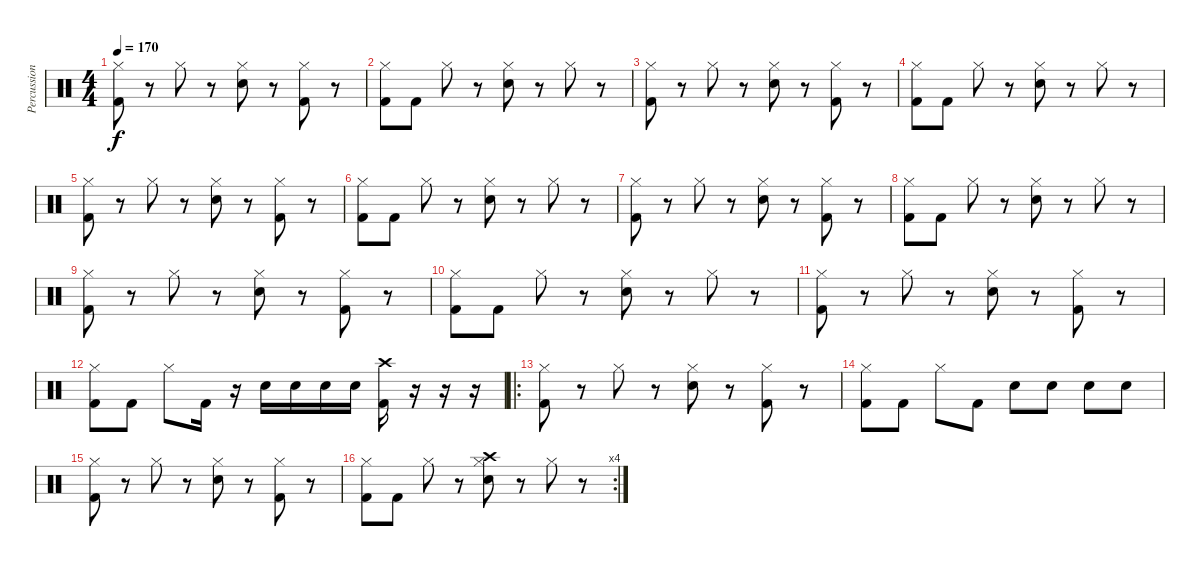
\track ("Percussions" "Percussion") {instrument percussion}
\staff {score}
\articulation defaults
\ts (4 4)
\tempo 170
\clef neutral
\ks c
("Kick (hit) 2" "Hi-Hat (closed)").8{dy f} r.8 "Hi-Hat (closed)".8 r.8 ("Electric Snare (hit)" "Hi-Hat (closed)").8 r.8 ("Kick (hit) 2" "Hi-Hat (closed)").8 r.8 |
("Kick (hit) 2" "Hi-Hat (closed)").8 "Kick (hit) 2".8 "Hi-Hat (closed)".8 r.8 ("Electric Snare (hit)" "Hi-Hat (closed)").8 r.8 "Hi-Hat (closed)".8 r.8 |
("Kick (hit) 2" "Hi-Hat (closed)").8 r.8 "Hi-Hat (closed)".8 r.8 ("Electric Snare (hit)" "Hi-Hat (closed)").8 r.8 ("Kick (hit) 2" "Hi-Hat (closed)").8 r.8 |
("Kick (hit) 2" "Hi-Hat (closed)").8 "Kick (hit) 2".8 "Hi-Hat (closed)".8 r.8 ("Electric Snare (hit)" "Hi-Hat (closed)").8 r.8 "Hi-Hat (closed)".8 r.8 |
("Kick (hit) 2" "Hi-Hat (closed)").8 r.8 "Hi-Hat (closed)".8 r.8 ("Electric Snare (hit)" "Hi-Hat (closed)").8 r.8 ("Kick (hit) 2" "Hi-Hat (closed)").8 r.8 |
("Kick (hit) 2" "Hi-Hat (closed)").8 "Kick (hit) 2".8 "Hi-Hat (closed)".8 r.8 ("Electric Snare (hit)" "Hi-Hat (closed)").8 r.8 "Hi-Hat (closed)".8 r.8 |
("Kick (hit) 2" "Hi-Hat (closed)").8 r.8 "Hi-Hat (closed)".8 r.8 ("Electric Snare (hit)" "Hi-Hat (closed)").8 r.8 ("Kick (hit) 2" "Hi-Hat (closed)").8 r.8 |
("Kick (hit) 2" "Hi-Hat (closed)").8 "Kick (hit) 2".8 "Hi-Hat (closed)".8 r.8 ("Electric Snare (hit)" "Hi-Hat (closed)").8 r.8 "Hi-Hat (closed)".8 r.8 |
("Kick (hit) 2" "Hi-Hat (closed)").8 r.8 "Hi-Hat (closed)".8 r.8 ("Electric Snare (hit)" "Hi-Hat (closed)").8 r.8 ("Kick (hit) 2" "Hi-Hat (closed)").8 r.8 |
("Kick (hit) 2" "Hi-Hat (closed)").8 "Kick (hit) 2".8 "Hi-Hat (closed)".8 r.8 ("Electric Snare (hit)" "Hi-Hat (closed)").8 r.8 "Hi-Hat (closed)".8 r.8 |
("Kick (hit) 2" "Hi-Hat (closed)").8 r.8 "Hi-Hat (closed)".8 r.8 ("Electric Snare (hit)" "Hi-Hat (closed)").8 r.8 ("Kick (hit) 2" "Hi-Hat (closed)").8 r.8 |
("Kick (hit) 2" "Hi-Hat (closed)").8 "Kick (hit) 2".8 "Hi-Hat (closed)".8 "Kick (hit) 2".16 r.16 "Electric Snare (hit)".16 "Electric Snare (hit)".16 "Electric Snare (hit)".16 "Electric Snare (hit)".16 ("Kick (hit) 2" "Crash high (hit)").16 r.16 r.16 r.16 |
\ro
("Kick (hit) 2" "Hi-Hat (closed)").8 r.8 "Hi-Hat (closed)".8 r.8 ("Electric Snare (hit)" "Hi-Hat (closed)").8 r.8 ("Kick (hit) 2" "Hi-Hat (closed)").8 r.8 |
("Kick (hit) 2" "Hi-Hat (closed)").8 "Kick (hit) 2".8 "Hi-Hat (closed)".8 "Kick (hit) 2".8 "Electric Snare (hit)".8 "Electric Snare (hit)".8 "Electric Snare (hit)".8 "Electric Snare (hit)".8 |
("Kick (hit) 2" "Hi-Hat (closed)").8 r.8 "Hi-Hat (closed)".8 r.8 ("Electric Snare (hit)" "Hi-Hat (closed)").8 r.8 ("Kick (hit) 2" "Hi-Hat (closed)").8 r.8 |
\rc 4
("Kick (hit) 2" "Hi-Hat (closed)").8 "Kick (hit) 2".8 "Hi-Hat (closed)".8 r.8 ("Crash high (hit)" "Electric Snare (hit)" "Hi-Hat (closed)").8 r.8 "Hi-Hat (closed)".8 r.8
